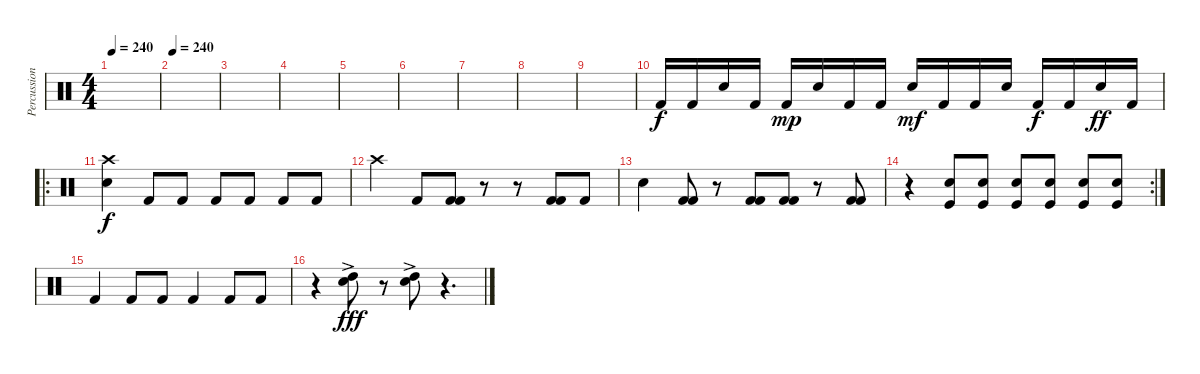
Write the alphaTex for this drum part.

\track ("Percussions" "Percussion") {instrument percussion}
\staff {score}
\articulation defaults
\ts (4 4)
\tempo 240
\tempo 100
\tempo 240
\clef neutral
\ks c
|
\tempo 240
|
|
|
|
|
|
|
|
"Kick (hit) 2".16 "Kick (hit) 2".16 "Snare (hit) 2".16 "Kick (hit) 2".16 "Kick (hit) 2".16{dy mp} "Snare (hit) 2".16 "Kick (hit) 2".16 "Kick (hit) 2".16 "Snare (hit) 2".16{dy mf} "Kick (hit) 2".16 "Kick (hit) 2".16 "Snare (hit) 2".16 "Kick (hit) 2".16{dy f} "Kick (hit) 2".16 "Electric Snare (hit)".16{dy ff} "Kick (hit) 2".16 |
\ro
("Crash high (hit)" "Electric Snare (hit)").4{dy f} "Kick (hit) 2".8 "Kick (hit) 2".8 "Kick (hit) 2".8 "Kick (hit) 2".8 "Kick (hit) 2".8 "Kick (hit) 2".8 |
"Crash high (hit)".4 "Kick (hit) 2".8 ("Kick (hit) 2" "Kick (hit) 2").8 r.8 r.8 ("Kick (hit) 2" "Kick (hit) 2").8 "Kick (hit) 2".8 |
"Snare (hit) 2".4 ("Kick (hit) 2" "Kick (hit) 2").8 r.8 ("Kick (hit) 2" "Kick (hit) 2").8 ("Kick (hit) 2" "Kick (hit) 2").8 r.8 ("Kick (hit) 2" "Kick (hit) 2").8 |
\rc 2
r.4 ("Kick (hit)" "Electric Snare (hit)").8 ("Kick (hit)" "Electric Snare (hit)").8 ("Kick (hit)" "Electric Snare (hit)").8 ("Kick (hit)" "Electric Snare (hit)").8 ("Kick (hit)" "Electric Snare (hit)").8 ("Kick (hit)" "Electric Snare (hit)").8 |
"Kick (hit) 2".4 "Kick (hit) 2".8 "Kick (hit) 2".8 "Kick (hit) 2".4 "Kick (hit) 2".8 "Kick (hit) 2".8 |
r.4 ("Hand Clap (hit)"{ac} "High Tom (hit)").8{dy fff} r.8 ("Hand Clap (hit)"{ac} "High Tom (hit)").8 r.4{d}
